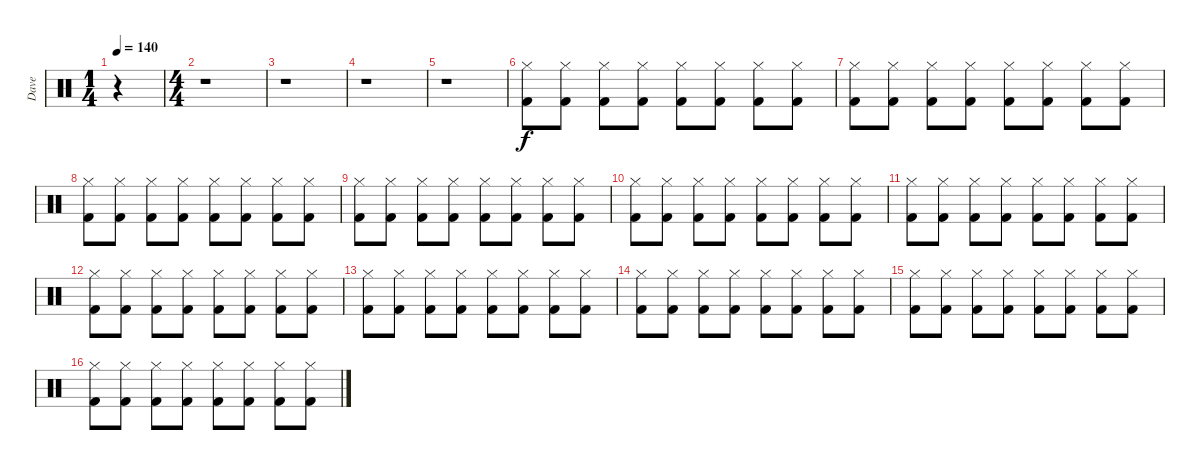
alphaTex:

\track ("Dave" "Dave") {instrument percussion}
\staff {score}
\articulation defaults
\ts (1 4)
\tempo 140
\clef neutral
\ks c
r.4{dy f} |
\ts (4 4)
r.1 |
r.1 |
r.1 |
r.1 |
("Hi-Hat (closed)" "Kick (hit) 2").8 ("Hi-Hat (closed)" "Kick (hit) 2").8 ("Hi-Hat (closed)" "Kick (hit) 2").8 ("Hi-Hat (closed)" "Kick (hit) 2").8 ("Hi-Hat (closed)" "Kick (hit) 2").8 ("Hi-Hat (closed)" "Kick (hit) 2").8 ("Hi-Hat (closed)" "Kick (hit) 2").8 ("Hi-Hat (closed)" "Kick (hit) 2").8 |
("Hi-Hat (closed)" "Kick (hit) 2").8 ("Hi-Hat (closed)" "Kick (hit) 2").8 ("Hi-Hat (closed)" "Kick (hit) 2").8 ("Hi-Hat (closed)" "Kick (hit) 2").8 ("Hi-Hat (closed)" "Kick (hit) 2").8 ("Hi-Hat (closed)" "Kick (hit) 2").8 ("Hi-Hat (closed)" "Kick (hit) 2").8 ("Hi-Hat (closed)" "Kick (hit) 2").8 |
("Hi-Hat (closed)" "Kick (hit) 2").8 ("Hi-Hat (closed)" "Kick (hit) 2").8 ("Hi-Hat (closed)" "Kick (hit) 2").8 ("Hi-Hat (closed)" "Kick (hit) 2").8 ("Hi-Hat (closed)" "Kick (hit) 2").8 ("Hi-Hat (closed)" "Kick (hit) 2").8 ("Hi-Hat (closed)" "Kick (hit) 2").8 ("Hi-Hat (closed)" "Kick (hit) 2").8 |
("Hi-Hat (closed)" "Kick (hit) 2").8 ("Hi-Hat (closed)" "Kick (hit) 2").8 ("Hi-Hat (closed)" "Kick (hit) 2").8 ("Hi-Hat (closed)" "Kick (hit) 2").8 ("Hi-Hat (closed)" "Kick (hit) 2").8 ("Hi-Hat (closed)" "Kick (hit) 2").8 ("Hi-Hat (closed)" "Kick (hit) 2").8 ("Hi-Hat (closed)" "Kick (hit) 2").8 |
("Hi-Hat (closed)" "Kick (hit) 2").8 ("Hi-Hat (closed)" "Kick (hit) 2").8 ("Hi-Hat (closed)" "Kick (hit) 2").8 ("Hi-Hat (closed)" "Kick (hit) 2").8 ("Hi-Hat (closed)" "Kick (hit) 2").8 ("Hi-Hat (closed)" "Kick (hit) 2").8 ("Hi-Hat (closed)" "Kick (hit) 2").8 ("Hi-Hat (closed)" "Kick (hit) 2").8 |
("Hi-Hat (closed)" "Kick (hit) 2").8 ("Hi-Hat (closed)" "Kick (hit) 2").8 ("Hi-Hat (closed)" "Kick (hit) 2").8 ("Hi-Hat (closed)" "Kick (hit) 2").8 ("Hi-Hat (closed)" "Kick (hit) 2").8 ("Hi-Hat (closed)" "Kick (hit) 2").8 ("Hi-Hat (closed)" "Kick (hit) 2").8 ("Hi-Hat (closed)" "Kick (hit) 2").8 |
("Hi-Hat (closed)" "Kick (hit) 2").8 ("Hi-Hat (closed)" "Kick (hit) 2").8 ("Hi-Hat (closed)" "Kick (hit) 2").8 ("Hi-Hat (closed)" "Kick (hit) 2").8 ("Hi-Hat (closed)" "Kick (hit) 2").8 ("Hi-Hat (closed)" "Kick (hit) 2").8 ("Hi-Hat (closed)" "Kick (hit) 2").8 ("Hi-Hat (closed)" "Kick (hit) 2").8 |
("Hi-Hat (closed)" "Kick (hit) 2").8 ("Hi-Hat (closed)" "Kick (hit) 2").8 ("Hi-Hat (closed)" "Kick (hit) 2").8 ("Hi-Hat (closed)" "Kick (hit) 2").8 ("Hi-Hat (closed)" "Kick (hit) 2").8 ("Hi-Hat (closed)" "Kick (hit) 2").8 ("Hi-Hat (closed)" "Kick (hit) 2").8 ("Hi-Hat (closed)" "Kick (hit) 2").8 |
("Hi-Hat (closed)" "Kick (hit) 2").8 ("Hi-Hat (closed)" "Kick (hit) 2").8 ("Hi-Hat (closed)" "Kick (hit) 2").8 ("Hi-Hat (closed)" "Kick (hit) 2").8 ("Hi-Hat (closed)" "Kick (hit) 2").8 ("Hi-Hat (closed)" "Kick (hit) 2").8 ("Hi-Hat (closed)" "Kick (hit) 2").8 ("Hi-Hat (closed)" "Kick (hit) 2").8 |
("Hi-Hat (closed)" "Kick (hit) 2").8 ("Hi-Hat (closed)" "Kick (hit) 2").8 ("Hi-Hat (closed)" "Kick (hit) 2").8 ("Hi-Hat (closed)" "Kick (hit) 2").8 ("Hi-Hat (closed)" "Kick (hit) 2").8 ("Hi-Hat (closed)" "Kick (hit) 2").8 ("Hi-Hat (closed)" "Kick (hit) 2").8 ("Hi-Hat (closed)" "Kick (hit) 2").8 |
("Hi-Hat (closed)" "Kick (hit) 2").8 ("Hi-Hat (closed)" "Kick (hit) 2").8 ("Hi-Hat (closed)" "Kick (hit) 2").8 ("Hi-Hat (closed)" "Kick (hit) 2").8 ("Hi-Hat (closed)" "Kick (hit) 2").8 ("Hi-Hat (closed)" "Kick (hit) 2").8 ("Hi-Hat (closed)" "Kick (hit) 2").8 ("Hi-Hat (closed)" "Kick (hit) 2").8
